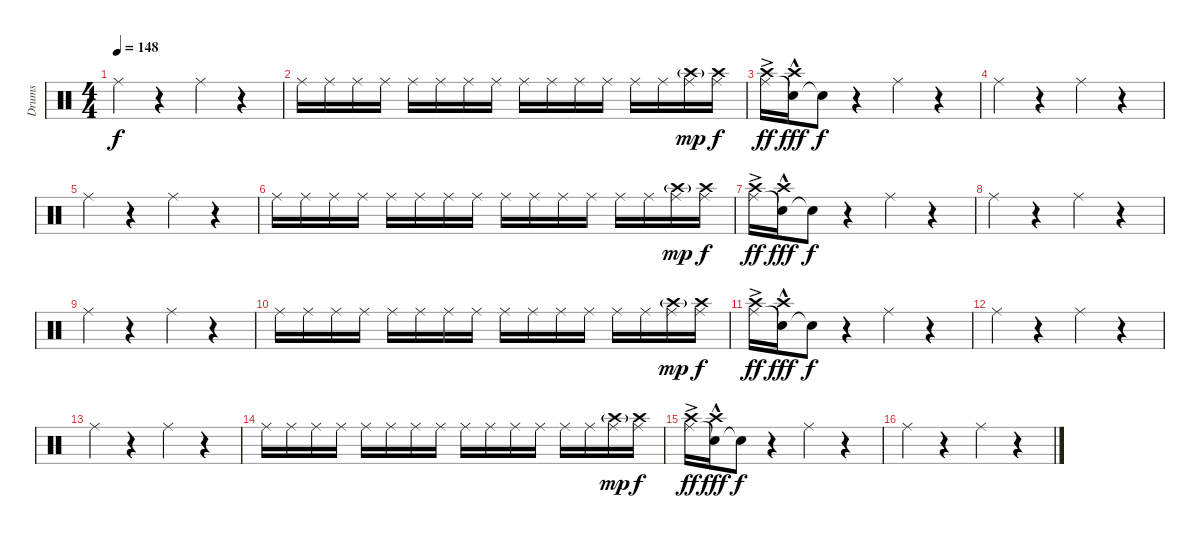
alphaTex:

\track ("Drums" "Drums") {instrument percussion}
\staff {score}
\articulation defaults
\ts (4 4)
\tempo 148
\clef neutral
\ks c "Ride (middle)".4{dy f}
r.4 "Ride (middle)".4 r.4 |
"Ride (middle)".16 "Ride (middle)".16 "Ride (middle)".16 "Ride (middle)".16 "Ride (middle)".16 "Ride (middle)".16 "Ride (middle)".16 "Ride (middle)".16 "Ride (middle)".16 "Ride (middle)".16 "Ride (middle)".16 "Ride (middle)".16 "Ride (middle)".16 "Ride (middle)".16 ("Ride (middle)" "Crash high (hit)"{g}).16{dy mp} ("Ride (middle)" "Crash high (hit)").16{dy f} |
("Ride (middle)" "Crash high (hit)"{ac}).16{dy ff} ("Snare (hit)"{t} "Crash high (hit)"{hac}).16{dy fff} "Snare (hit)"{t}.8{dy f} r.4 "Ride (middle)".4 r.4 |
"Ride (middle)".4 r.4 "Ride (middle)".4 r.4 |
"Ride (middle)".4 r.4 "Ride (middle)".4 r.4 |
"Ride (middle)".16 "Ride (middle)".16 "Ride (middle)".16 "Ride (middle)".16 "Ride (middle)".16 "Ride (middle)".16 "Ride (middle)".16 "Ride (middle)".16 "Ride (middle)".16 "Ride (middle)".16 "Ride (middle)".16 "Ride (middle)".16 "Ride (middle)".16 "Ride (middle)".16 ("Ride (middle)" "Crash high (hit)"{g}).16{dy mp} ("Ride (middle)" "Crash high (hit)").16{dy f} |
("Ride (middle)" "Crash high (hit)"{ac}).16{dy ff} ("Snare (hit)"{t} "Crash high (hit)"{hac}).16{dy fff} "Snare (hit)"{t}.8{dy f} r.4 "Ride (middle)".4 r.4 |
"Ride (middle)".4 r.4 "Ride (middle)".4 r.4 |
"Ride (middle)".4 r.4 "Ride (middle)".4 r.4 |
"Ride (middle)".16 "Ride (middle)".16 "Ride (middle)".16 "Ride (middle)".16 "Ride (middle)".16 "Ride (middle)".16 "Ride (middle)".16 "Ride (middle)".16 "Ride (middle)".16 "Ride (middle)".16 "Ride (middle)".16 "Ride (middle)".16 "Ride (middle)".16 "Ride (middle)".16 ("Ride (middle)" "Crash high (hit)"{g}).16{dy mp} ("Ride (middle)" "Crash high (hit)").16{dy f} |
("Ride (middle)" "Crash high (hit)"{ac}).16{dy ff} ("Snare (hit)"{t} "Crash high (hit)"{hac}).16{dy fff} "Snare (hit)"{t}.8{dy f} r.4 "Ride (middle)".4 r.4 |
"Ride (middle)".4 r.4 "Ride (middle)".4 r.4 |
"Ride (middle)".4 r.4 "Ride (middle)".4 r.4 |
"Ride (middle)".16 "Ride (middle)".16 "Ride (middle)".16 "Ride (middle)".16 "Ride (middle)".16 "Ride (middle)".16 "Ride (middle)".16 "Ride (middle)".16 "Ride (middle)".16 "Ride (middle)".16 "Ride (middle)".16 "Ride (middle)".16 "Ride (middle)".16 "Ride (middle)".16 ("Ride (middle)" "Crash high (hit)"{g}).16{dy mp} ("Ride (middle)" "Crash high (hit)").16{dy f} |
("Ride (middle)" "Crash high (hit)"{ac}).16{dy ff} ("Snare (hit)"{t} "Crash high (hit)"{hac}).16{dy fff} "Snare (hit)"{t}.8{dy f} r.4 "Ride (middle)".4 r.4 |
"Ride (middle)".4 r.4 "Ride (middle)".4 r.4
